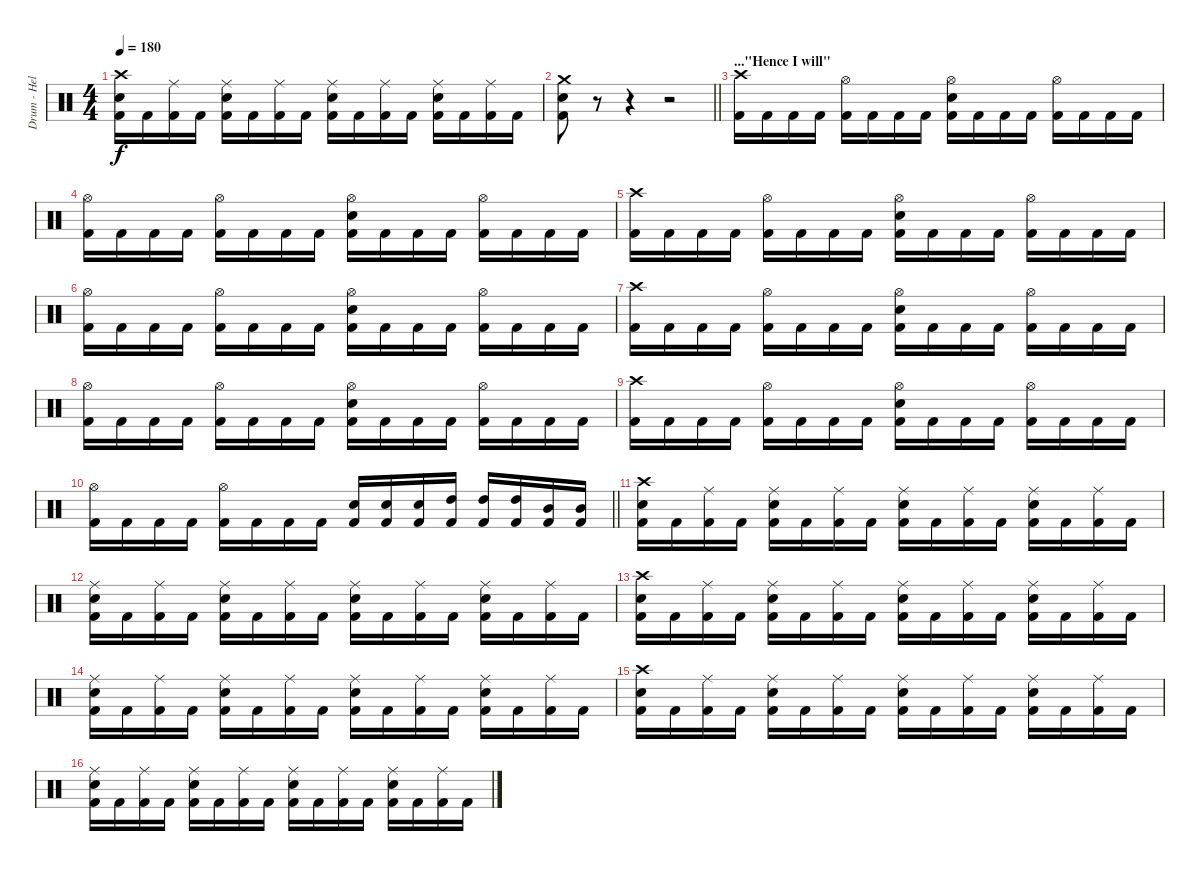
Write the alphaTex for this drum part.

\track ("Drum - Hellhammer" "Drum - Hel") {instrument percussion}
\staff {score}
\articulation defaults
\ts (4 4)
\tempo 180
\clef neutral
\ks c
("Crash high (hit)" "Electric Snare (hit)" "Kick (hit) 2").16{dy f} "Kick (hit) 2".16 ("Ride (middle)" "Kick (hit) 2").16 "Kick (hit) 2".16 ("Ride (middle)" "Electric Snare (hit)" "Kick (hit) 2").16 "Kick (hit) 2".16 ("Ride (middle)" "Kick (hit) 2").16 "Kick (hit) 2".16 ("Ride (middle)" "Electric Snare (hit)" "Kick (hit) 2").16 "Kick (hit) 2".16 ("Ride (middle)" "Kick (hit) 2").16 "Kick (hit) 2".16 ("Ride (middle)" "Electric Snare (hit)" "Kick (hit) 2").16 "Kick (hit) 2".16 ("Ride (middle)" "Kick (hit) 2").16 "Kick (hit) 2".16 |
\barLineRight lightlight
("Crash medium (hit)" "Electric Snare (hit)" "Kick (hit) 2").8 r.8 r.4{volume 0} r.2{volume 16} |
\section ("" "...\"Hence I will\"")
("Crash high (hit)" "Kick (hit) 2").16 "Kick (hit) 2".16 "Kick (hit) 2".16 "Kick (hit) 2".16 ("Hi-Hat (open)" "Kick (hit) 2").16 "Kick (hit) 2".16 "Kick (hit) 2".16 "Kick (hit) 2".16 ("Hi-Hat (open)" "Electric Snare (hit)" "Kick (hit) 2").16 "Kick (hit) 2".16 "Kick (hit) 2".16 "Kick (hit) 2".16 ("Hi-Hat (open)" "Kick (hit) 2").16 "Kick (hit) 2".16 "Kick (hit) 2".16 "Kick (hit) 2".16 |
("Hi-Hat (open)" "Kick (hit) 2").16 "Kick (hit) 2".16 "Kick (hit) 2".16 "Kick (hit) 2".16 ("Hi-Hat (open)" "Kick (hit) 2").16 "Kick (hit) 2".16 "Kick (hit) 2".16 "Kick (hit) 2".16 ("Hi-Hat (open)" "Electric Snare (hit)" "Kick (hit) 2").16 "Kick (hit) 2".16 "Kick (hit) 2".16 "Kick (hit) 2".16 ("Hi-Hat (open)" "Kick (hit) 2").16 "Kick (hit) 2".16 "Kick (hit) 2".16 "Kick (hit) 2".16 |
("Crash high (hit)" "Kick (hit) 2").16 "Kick (hit) 2".16 "Kick (hit) 2".16 "Kick (hit) 2".16 ("Hi-Hat (open)" "Kick (hit) 2").16 "Kick (hit) 2".16 "Kick (hit) 2".16 "Kick (hit) 2".16 ("Hi-Hat (open)" "Electric Snare (hit)" "Kick (hit) 2").16 "Kick (hit) 2".16 "Kick (hit) 2".16 "Kick (hit) 2".16 ("Hi-Hat (open)" "Kick (hit) 2").16 "Kick (hit) 2".16 "Kick (hit) 2".16 "Kick (hit) 2".16 |
("Hi-Hat (open)" "Kick (hit) 2").16 "Kick (hit) 2".16 "Kick (hit) 2".16 "Kick (hit) 2".16 ("Hi-Hat (open)" "Kick (hit) 2").16 "Kick (hit) 2".16 "Kick (hit) 2".16 "Kick (hit) 2".16 ("Hi-Hat (open)" "Electric Snare (hit)" "Kick (hit) 2").16 "Kick (hit) 2".16 "Kick (hit) 2".16 "Kick (hit) 2".16 ("Hi-Hat (open)" "Kick (hit) 2").16 "Kick (hit) 2".16 "Kick (hit) 2".16 "Kick (hit) 2".16 |
("Crash high (hit)" "Kick (hit) 2").16 "Kick (hit) 2".16 "Kick (hit) 2".16 "Kick (hit) 2".16 ("Hi-Hat (open)" "Kick (hit) 2").16 "Kick (hit) 2".16 "Kick (hit) 2".16 "Kick (hit) 2".16 ("Hi-Hat (open)" "Electric Snare (hit)" "Kick (hit) 2").16 "Kick (hit) 2".16 "Kick (hit) 2".16 "Kick (hit) 2".16 ("Hi-Hat (open)" "Kick (hit) 2").16 "Kick (hit) 2".16 "Kick (hit) 2".16 "Kick (hit) 2".16 |
("Hi-Hat (open)" "Kick (hit) 2").16 "Kick (hit) 2".16 "Kick (hit) 2".16 "Kick (hit) 2".16 ("Hi-Hat (open)" "Kick (hit) 2").16 "Kick (hit) 2".16 "Kick (hit) 2".16 "Kick (hit) 2".16 ("Hi-Hat (open)" "Electric Snare (hit)" "Kick (hit) 2").16 "Kick (hit) 2".16 "Kick (hit) 2".16 "Kick (hit) 2".16 ("Hi-Hat (open)" "Kick (hit) 2").16 "Kick (hit) 2".16 "Kick (hit) 2".16 "Kick (hit) 2".16 |
("Crash high (hit)" "Kick (hit) 2").16 "Kick (hit) 2".16 "Kick (hit) 2".16 "Kick (hit) 2".16 ("Hi-Hat (open)" "Kick (hit) 2").16 "Kick (hit) 2".16 "Kick (hit) 2".16 "Kick (hit) 2".16 ("Hi-Hat (open)" "Electric Snare (hit)" "Kick (hit) 2").16 "Kick (hit) 2".16 "Kick (hit) 2".16 "Kick (hit) 2".16 ("Hi-Hat (open)" "Kick (hit) 2").16 "Kick (hit) 2".16 "Kick (hit) 2".16 "Kick (hit) 2".16 |
\barLineRight lightlight
("Hi-Hat (open)" "Kick (hit) 2").16 "Kick (hit) 2".16 "Kick (hit) 2".16 "Kick (hit) 2".16 ("Hi-Hat (open)" "Kick (hit) 2").16 "Kick (hit) 2".16 "Kick (hit) 2".16 "Kick (hit) 2".16 ("Electric Snare (hit)" "Kick (hit) 2").16 ("Electric Snare (hit)" "Kick (hit) 2").16 ("Electric Snare (hit)" "Kick (hit) 2").16 ("High Tom (hit)" "Kick (hit) 2").16 ("High Tom (hit)" "Kick (hit) 2").16 ("High Tom (hit)" "Kick (hit) 2").16 ("Mid Tom (hit)" "Kick (hit) 2").16 ("Mid Tom (hit)" "Kick (hit) 2").16 |
\section ("" "")
("Crash high (hit)" "Electric Snare (hit)" "Kick (hit) 2").16 "Kick (hit) 2".16 ("Ride (middle)" "Kick (hit) 2").16 "Kick (hit) 2".16 ("Ride (middle)" "Electric Snare (hit)" "Kick (hit) 2").16 "Kick (hit) 2".16 ("Ride (middle)" "Kick (hit) 2").16 "Kick (hit) 2".16 ("Ride (middle)" "Electric Snare (hit)" "Kick (hit) 2").16 "Kick (hit) 2".16 ("Ride (middle)" "Kick (hit) 2").16 "Kick (hit) 2".16 ("Ride (middle)" "Electric Snare (hit)" "Kick (hit) 2").16 "Kick (hit) 2".16 ("Ride (middle)" "Kick (hit) 2").16 "Kick (hit) 2".16 |
("Ride (middle)" "Electric Snare (hit)" "Kick (hit) 2").16 "Kick (hit) 2".16 ("Ride (middle)" "Kick (hit) 2").16 "Kick (hit) 2".16 ("Ride (middle)" "Electric Snare (hit)" "Kick (hit) 2").16 "Kick (hit) 2".16 ("Ride (middle)" "Kick (hit) 2").16 "Kick (hit) 2".16 ("Ride (middle)" "Electric Snare (hit)" "Kick (hit) 2").16 "Kick (hit) 2".16 ("Ride (middle)" "Kick (hit) 2").16 "Kick (hit) 2".16 ("Ride (middle)" "Electric Snare (hit)" "Kick (hit) 2").16 "Kick (hit) 2".16 ("Ride (middle)" "Kick (hit) 2").16 "Kick (hit) 2".16 |
("Crash high (hit)" "Electric Snare (hit)" "Kick (hit) 2").16 "Kick (hit) 2".16 ("Ride (middle)" "Kick (hit) 2").16 "Kick (hit) 2".16 ("Ride (middle)" "Electric Snare (hit)" "Kick (hit) 2").16 "Kick (hit) 2".16 ("Ride (middle)" "Kick (hit) 2").16 "Kick (hit) 2".16 ("Ride (middle)" "Electric Snare (hit)" "Kick (hit) 2").16 "Kick (hit) 2".16 ("Ride (middle)" "Kick (hit) 2").16 "Kick (hit) 2".16 ("Ride (middle)" "Electric Snare (hit)" "Kick (hit) 2").16 "Kick (hit) 2".16 ("Ride (middle)" "Kick (hit) 2").16 "Kick (hit) 2".16 |
("Ride (middle)" "Electric Snare (hit)" "Kick (hit) 2").16 "Kick (hit) 2".16 ("Ride (middle)" "Kick (hit) 2").16 "Kick (hit) 2".16 ("Ride (middle)" "Electric Snare (hit)" "Kick (hit) 2").16 "Kick (hit) 2".16 ("Ride (middle)" "Kick (hit) 2").16 "Kick (hit) 2".16 ("Ride (middle)" "Electric Snare (hit)" "Kick (hit) 2").16 "Kick (hit) 2".16 ("Ride (middle)" "Kick (hit) 2").16 "Kick (hit) 2".16 ("Ride (middle)" "Electric Snare (hit)" "Kick (hit) 2").16 "Kick (hit) 2".16 ("Ride (middle)" "Kick (hit) 2").16 "Kick (hit) 2".16 |
("Crash high (hit)" "Electric Snare (hit)" "Kick (hit) 2").16 "Kick (hit) 2".16 ("Ride (middle)" "Kick (hit) 2").16 "Kick (hit) 2".16 ("Ride (middle)" "Electric Snare (hit)" "Kick (hit) 2").16 "Kick (hit) 2".16 ("Ride (middle)" "Kick (hit) 2").16 "Kick (hit) 2".16 ("Ride (middle)" "Electric Snare (hit)" "Kick (hit) 2").16 "Kick (hit) 2".16 ("Ride (middle)" "Kick (hit) 2").16 "Kick (hit) 2".16 ("Ride (middle)" "Electric Snare (hit)" "Kick (hit) 2").16 "Kick (hit) 2".16 ("Ride (middle)" "Kick (hit) 2").16 "Kick (hit) 2".16 |
("Ride (middle)" "Electric Snare (hit)" "Kick (hit) 2").16 "Kick (hit) 2".16 ("Ride (middle)" "Kick (hit) 2").16 "Kick (hit) 2".16 ("Ride (middle)" "Electric Snare (hit)" "Kick (hit) 2").16 "Kick (hit) 2".16 ("Ride (middle)" "Kick (hit) 2").16 "Kick (hit) 2".16 ("Ride (middle)" "Electric Snare (hit)" "Kick (hit) 2").16 "Kick (hit) 2".16 ("Ride (middle)" "Kick (hit) 2").16 "Kick (hit) 2".16 ("Ride (middle)" "Electric Snare (hit)" "Kick (hit) 2").16 "Kick (hit) 2".16 ("Ride (middle)" "Kick (hit) 2").16 "Kick (hit) 2".16
